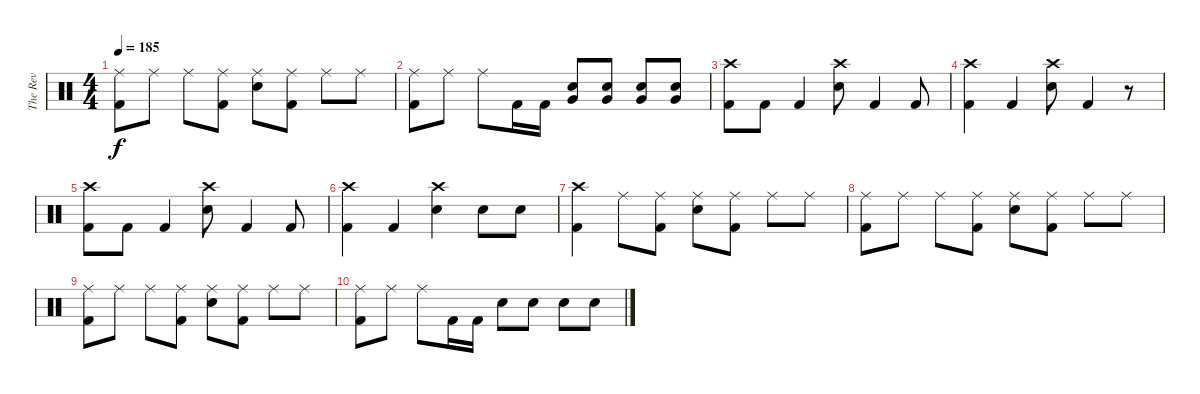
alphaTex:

\track ("The Rev" "The Rev") {instrument percussion}
\staff {score}
\articulation defaults
\ts (4 4)
\tempo 185
\clef neutral
\ks c
("Ride (middle)" "Kick (hit) 2").8{dy f} "Ride (middle)".8 "Ride (middle)".8 ("Ride (middle)" "Kick (hit) 2").8 ("Ride (middle)" "Electric Snare (hit)").8 ("Ride (middle)" "Kick (hit) 2").8 "Ride (middle)".8 "Ride (middle)".8 |
("Ride (middle)" "Kick (hit) 2").8 "Ride (middle)".8 "Ride (middle)".8 "Kick (hit) 2".16 "Kick (hit) 2".16 ("Very Low Tom (hit)" "Electric Snare (hit)").8 ("Very Low Tom (hit)" "Electric Snare (hit)").8 ("Very Low Tom (hit)" "Electric Snare (hit)").8 ("Very Low Tom (hit)" "Electric Snare (hit)").8 |
("Crash high (hit)" "Kick (hit) 2").8 "Kick (hit) 2".8 "Kick (hit) 2".4 ("Crash high (hit)" "Electric Snare (hit)").8 "Kick (hit) 2".4 "Kick (hit) 2".8 |
("Crash high (hit)" "Kick (hit) 2").4 "Kick (hit) 2".4 ("Crash high (hit)" "Electric Snare (hit)").8 "Kick (hit) 2".4 r.8 |
("Crash high (hit)" "Kick (hit) 2").8 "Kick (hit) 2".8 "Kick (hit) 2".4 ("Crash high (hit)" "Electric Snare (hit)").8 "Kick (hit) 2".4 "Kick (hit) 2".8 |
("Crash high (hit)" "Kick (hit) 2").4 "Kick (hit) 2".4 ("Crash high (hit)" "Electric Snare (hit)").4 "Electric Snare (hit)".8 "Electric Snare (hit)".8 |
("Crash high (hit)" "Kick (hit) 2").4 "Ride (middle)".8 ("Ride (middle)" "Kick (hit) 2").8 ("Ride (middle)" "Electric Snare (hit)").8 ("Ride (middle)" "Kick (hit) 2").8 "Ride (middle)".8 "Ride (middle)".8 |
("Ride (middle)" "Kick (hit) 2").8 "Ride (middle)".8 "Ride (middle)".8 ("Ride (middle)" "Kick (hit) 2").8 ("Ride (middle)" "Electric Snare (hit)").8 ("Ride (middle)" "Kick (hit) 2").8 "Ride (middle)".8 "Ride (middle)".8 |
("Ride (middle)" "Kick (hit) 2").8 "Ride (middle)".8 "Ride (middle)".8 ("Ride (middle)" "Kick (hit) 2").8 ("Ride (middle)" "Electric Snare (hit)").8 ("Ride (middle)" "Kick (hit) 2").8 "Ride (middle)".8 "Ride (middle)".8 |
("Ride (middle)" "Kick (hit) 2").8 "Ride (middle)".8 "Ride (middle)".8 "Kick (hit) 2".16 "Kick (hit) 2".16 "Electric Snare (hit)".8 "Electric Snare (hit)".8 "Electric Snare (hit)".8 "Electric Snare (hit)".8
